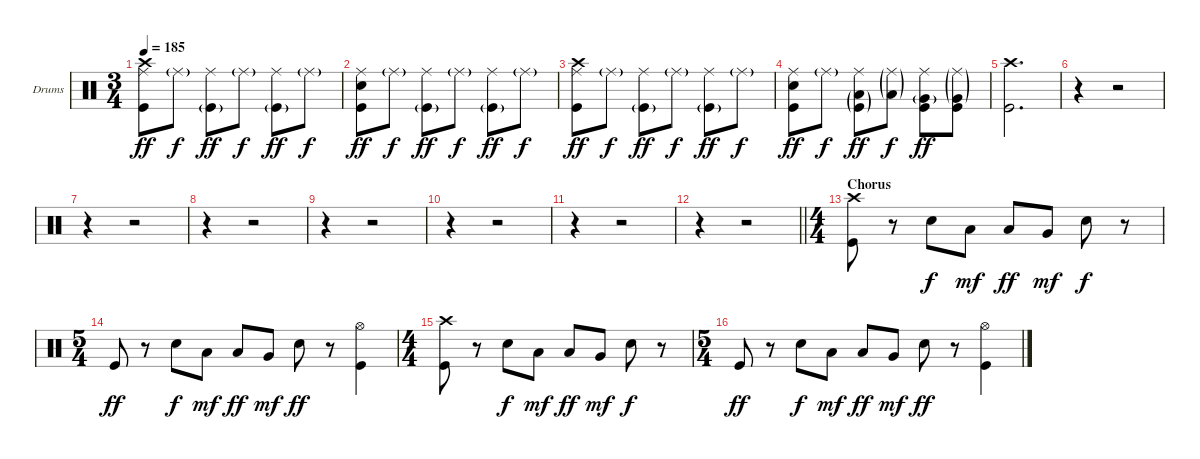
\bracketExtendMode groupsimilarinstruments
\firstSystemTrackNameOrientation horizontal
\otherSystemsTrackNameOrientation horizontal
\track ("Drumkit" "Drums") {instrument percussion}
\staff {score}
\articulation defaults
\ts (3 4)
\tempo 185
\clef neutral
\ks c
("Crash high (hit)" "Ride (middle)" "Kick (hit)").8{dy ff} "Ride (middle)"{g}.8{dy f} ("Ride (middle)" "Kick (hit)"{g}).8{dy ff} "Ride (middle)"{g}.8{dy f} ("Ride (middle)" "Kick (hit)"{g}).8{dy ff} "Ride (middle)"{g}.8{dy f} |
("Ride (middle)" "Snare (hit) 2" "Kick (hit)").8{dy ff} "Ride (middle)"{g}.8{dy f} ("Ride (middle)" "Kick (hit)"{g}).8{dy ff} "Ride (middle)"{g}.8{dy f} ("Ride (middle)" "Kick (hit)"{g}).8{dy ff} "Ride (middle)"{g}.8{dy f} |
("Crash high (hit)" "Ride (middle)" "Kick (hit)").8{dy ff} "Ride (middle)"{g}.8{dy f} ("Ride (middle)" "Kick (hit)"{g}).8{dy ff} "Ride (middle)"{g}.8{dy f} ("Ride (middle)" "Kick (hit)"{g}).8{dy ff} "Ride (middle)"{g}.8{dy f} |
("Ride (middle)" "Snare (hit) 2" "Kick (hit)").8{dy ff} "Ride (middle)"{g}.8{dy f} ("Ride (middle)" "Low Tom (hit)"{g} "Kick (hit)"{g}).8{dy ff} ("Ride (middle)"{g} "Low Tom (hit)"{g}).8{dy f} ("Ride (middle)" "Very Low Tom (hit)"{g} "Kick (hit)").8{dy ff} ("Ride (middle)"{g} "Very Low Tom (hit)"{g} "Kick (hit)").8 |
("Crash high (hit)" "Kick (hit)").2{d} |
r.4 r.2 |
r.4 r.2 |
r.4 r.2 |
r.4 r.2 |
r.4 r.2 |
r.4 r.2 |
\barLineRight lightlight
r.4 r.2 |
\ts (4 4)
\beaming (8 2 2 2 2)
\section ("" "Chorus")
("Crash high (hit)" "Kick (hit)").8 r.8 "Snare (hit) 2".8{dy f} "Low Tom (hit)".8{dy mf} "Low Tom (hit)".8{dy ff} "Very Low Tom (hit)".8{dy mf} "Snare (hit) 2".8{dy f} r.8 |
\ts (5 4)
\beaming (8 2 2 2 4)
"Kick (hit)".8{dy ff} r.8 "Snare (hit) 2".8{dy f} "Low Tom (hit)".8{dy mf} "Low Tom (hit)".8{dy ff} "Very Low Tom (hit)".8{dy mf} "Snare (hit) 2".8{dy ff} r.8 ("Hi-Hat (open)" "Kick (hit)").4 |
\ts (4 4)
\beaming (8 2 2 2 2)
("Crash high (hit)" "Kick (hit)").8 r.8 "Snare (hit) 2".8{dy f} "Low Tom (hit)".8{dy mf} "Low Tom (hit)".8{dy ff} "Very Low Tom (hit)".8{dy mf} "Snare (hit) 2".8{dy f} r.8 |
\ts (5 4)
\beaming (8 2 2 2 4)
"Kick (hit)".8{dy ff} r.8 "Snare (hit) 2".8{dy f} "Low Tom (hit)".8{dy mf} "Low Tom (hit)".8{dy ff} "Very Low Tom (hit)".8{dy mf} "Snare (hit) 2".8{dy ff} r.8 ("Hi-Hat (open)" "Kick (hit)").4
